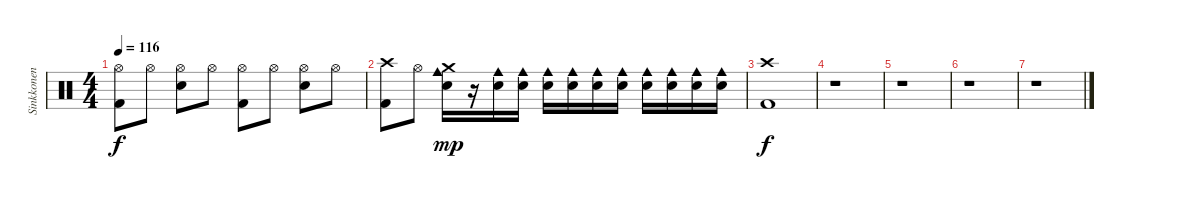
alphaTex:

\track ("Sinkkonen" "Sinkkonen") {instrument percussion}
\staff {score}
\articulation defaults
\ts (4 4)
\tempo 116
\clef neutral
\ks c
("Kick (hit) 2" "Hi-Hat (open)").8{dy f} "Hi-Hat (open)".8 ("Hi-Hat (open)" "Snare (hit) 2").8 "Hi-Hat (open)".8 ("Kick (hit) 2" "Hi-Hat (open)").8 "Hi-Hat (open)".8 ("Hi-Hat (open)" "Snare (hit) 2").8 "Hi-Hat (open)".8 |
("Kick (hit) 2" "Crash high (hit)").8 "Hi-Hat (open)".8 ("Crash medium (hit)" "Snare (hit) 2" "Cowbell medium (hit)").16{dy mp} r.16 ("Snare (hit) 2" "Cowbell medium (hit)").16 ("Snare (hit) 2" "Cowbell medium (hit)").16 ("Snare (hit) 2" "Cowbell medium (hit)").16 ("Snare (hit) 2" "Cowbell medium (hit)").16 ("Snare (hit) 2" "Cowbell medium (hit)").16 ("Snare (hit) 2" "Cowbell medium (hit)").16 ("Snare (hit) 2" "Cowbell medium (hit)").16 ("Snare (hit) 2" "Cowbell medium (hit)").16 ("Snare (hit) 2" "Cowbell medium (hit)").16 ("Snare (hit) 2" "Cowbell medium (hit)").16 |
("Kick (hit) 2" "Crash high (hit)").1{dy f} |
r.1 |
r.1 |
r.1 |
r.1
